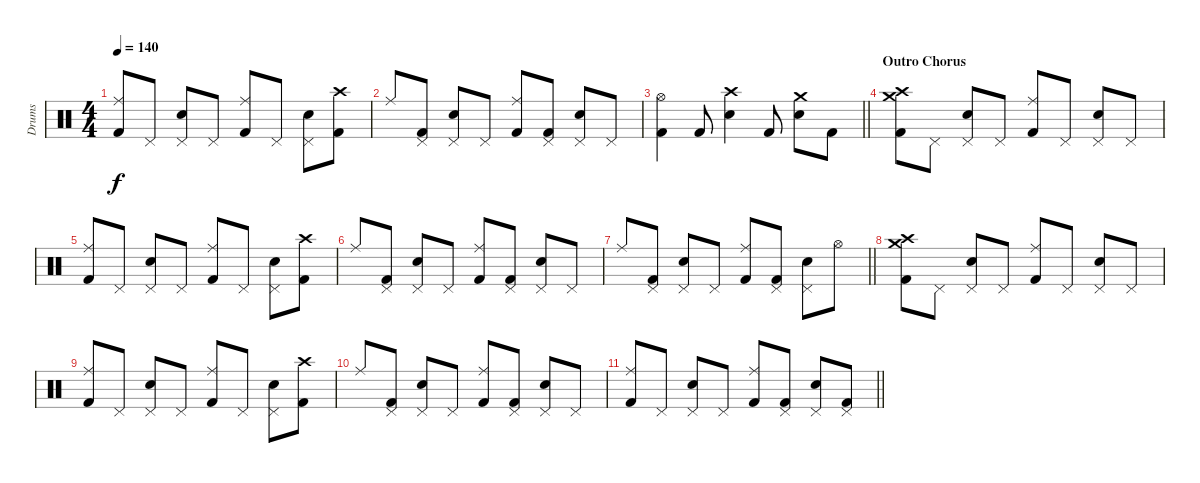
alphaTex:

\track ("Drums" "Drums") {instrument percussion}
\staff {score}
\articulation defaults
\ts (4 4)
\tempo 140
\clef neutral
\ks c
("Ride (middle)" "Kick (hit) 2").8{dy f} "Pedal Hi-Hat (hit)".8 ("Pedal Hi-Hat (hit)" "Snare (hit) 2").8 "Pedal Hi-Hat (hit)".8 ("Ride (middle)" "Kick (hit) 2").8 "Pedal Hi-Hat (hit)".8 ("Pedal Hi-Hat (hit)" "Snare (hit) 2").8 ("Crash high (hit)" "Kick (hit) 2").8 |
"Ride (middle)".8 ("Pedal Hi-Hat (hit)" "Kick (hit) 2").8 ("Pedal Hi-Hat (hit)" "Snare (hit) 2").8 "Pedal Hi-Hat (hit)".8 ("Ride (middle)" "Kick (hit) 2").8 ("Pedal Hi-Hat (hit)" "Kick (hit) 2").8 ("Pedal Hi-Hat (hit)" "Snare (hit) 2").8 "Pedal Hi-Hat (hit)".8 |
\barLineRight lightlight
("Hi-Hat (open)" "Kick (hit) 2").4 "Kick (hit) 2".8 ("Crash high (hit)" "Snare (hit) 2").4 "Kick (hit) 2".8 ("Crash medium (hit)" "Snare (hit) 2").8 "Kick (hit) 2".8 |
\section ("" "Outro Chorus")
("Crash medium (hit)" "Crash high (hit)" "Kick (hit) 2").8 "Pedal Hi-Hat (hit)".8 ("Pedal Hi-Hat (hit)" "Snare (hit) 2").8 "Pedal Hi-Hat (hit)".8 ("Ride (middle)" "Kick (hit) 2").8 "Pedal Hi-Hat (hit)".8 ("Pedal Hi-Hat (hit)" "Snare (hit) 2").8 "Pedal Hi-Hat (hit)".8 |
("Ride (middle)" "Kick (hit) 2").8 "Pedal Hi-Hat (hit)".8 ("Pedal Hi-Hat (hit)" "Snare (hit) 2").8 "Pedal Hi-Hat (hit)".8 ("Ride (middle)" "Kick (hit) 2").8 "Pedal Hi-Hat (hit)".8 ("Pedal Hi-Hat (hit)" "Snare (hit) 2").8 ("Crash high (hit)" "Kick (hit) 2").8 |
"Ride (middle)".8 ("Pedal Hi-Hat (hit)" "Kick (hit) 2").8 ("Pedal Hi-Hat (hit)" "Snare (hit) 2").8 "Pedal Hi-Hat (hit)".8 ("Ride (middle)" "Kick (hit) 2").8 ("Pedal Hi-Hat (hit)" "Kick (hit) 2").8 ("Pedal Hi-Hat (hit)" "Snare (hit) 2").8 "Pedal Hi-Hat (hit)".8 |
\barLineRight lightlight "Ride (middle)".8
("Pedal Hi-Hat (hit)" "Kick (hit) 2").8 ("Pedal Hi-Hat (hit)" "Snare (hit) 2").8 "Pedal Hi-Hat (hit)".8 ("Ride (middle)" "Kick (hit) 2").8 ("Pedal Hi-Hat (hit)" "Kick (hit) 2").8 ("Pedal Hi-Hat (hit)" "Snare (hit) 2").8 "Hi-Hat (open)".8 |
("Crash medium (hit)" "Crash high (hit)" "Kick (hit) 2").8 "Pedal Hi-Hat (hit)".8 ("Pedal Hi-Hat (hit)" "Snare (hit) 2").8 "Pedal Hi-Hat (hit)".8 ("Ride (middle)" "Kick (hit) 2").8 "Pedal Hi-Hat (hit)".8 ("Pedal Hi-Hat (hit)" "Snare (hit) 2").8 "Pedal Hi-Hat (hit)".8 |
("Ride (middle)" "Kick (hit) 2").8 "Pedal Hi-Hat (hit)".8 ("Pedal Hi-Hat (hit)" "Snare (hit) 2").8 "Pedal Hi-Hat (hit)".8 ("Ride (middle)" "Kick (hit) 2").8 "Pedal Hi-Hat (hit)".8 ("Pedal Hi-Hat (hit)" "Snare (hit) 2").8 ("Crash high (hit)" "Kick (hit) 2").8 |
"Ride (middle)".8 ("Pedal Hi-Hat (hit)" "Kick (hit) 2").8 ("Pedal Hi-Hat (hit)" "Snare (hit) 2").8 "Pedal Hi-Hat (hit)".8 ("Ride (middle)" "Kick (hit) 2").8 ("Pedal Hi-Hat (hit)" "Kick (hit) 2").8 ("Pedal Hi-Hat (hit)" "Snare (hit) 2").8 "Pedal Hi-Hat (hit)".8 |
\barLineRight lightlight
("Ride (middle)" "Kick (hit) 2").8 "Pedal Hi-Hat (hit)".8 ("Pedal Hi-Hat (hit)" "Snare (hit) 2").8 "Pedal Hi-Hat (hit)".8 ("Ride (middle)" "Kick (hit) 2").8 ("Pedal Hi-Hat (hit)" "Kick (hit) 2").8 ("Pedal Hi-Hat (hit)" "Snare (hit) 2").8 ("Pedal Hi-Hat (hit)" "Kick (hit) 2").8
